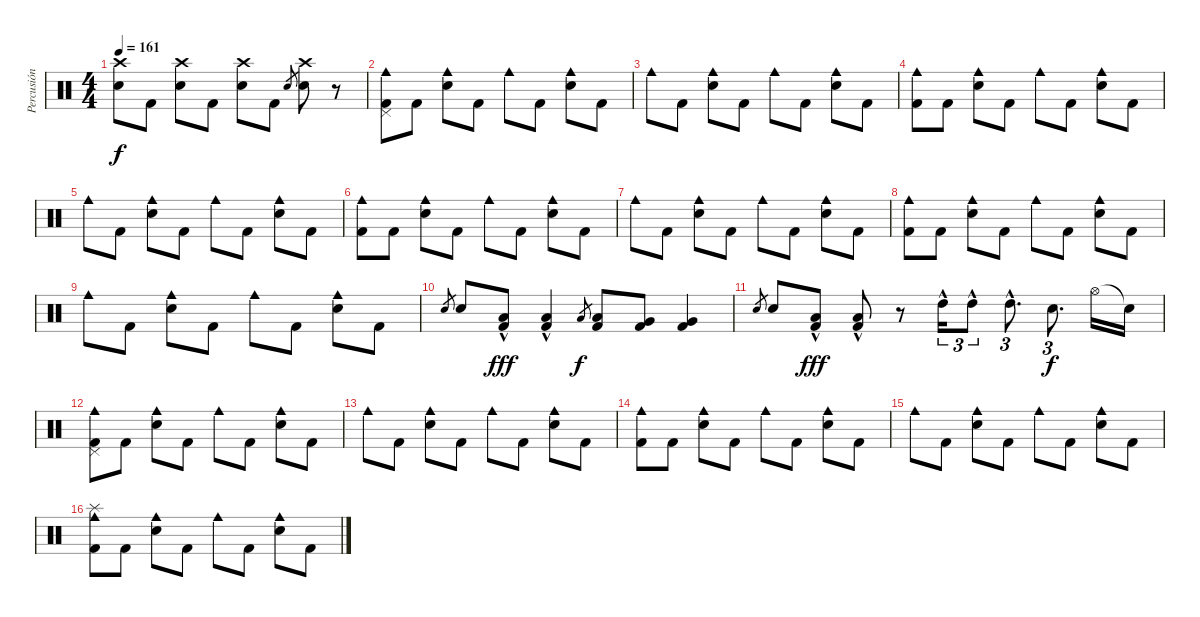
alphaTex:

\track ("Percusión" "Percusión") {instrument percussion}
\staff {score}
\articulation defaults
\ts (4 4)
\tempo 161
\clef neutral
\ks c
("Crash high (hit)" "Snare (hit) 2").8{dy f} "Kick (hit) 2".8 ("Crash high (hit)" "Snare (hit) 2").8 "Kick (hit) 2".8 ("Crash high (hit)" "Snare (hit) 2").8 "Kick (hit) 2".8 "Snare (hit) 2".8{gr} ("Crash high (hit)" "Snare (hit) 2").8 r.8 |
("Pedal Hi-Hat (hit)" "Cowbell medium (hit)" "Kick (hit) 2").8 "Kick (hit) 2".8 ("Cowbell medium (hit)" "Snare (hit) 2").8 "Kick (hit) 2".8 "Cowbell medium (hit)".8 "Kick (hit) 2".8 ("Cowbell medium (hit)" "Snare (hit) 2").8 "Kick (hit) 2".8 |
"Cowbell medium (hit)".8 "Kick (hit) 2".8 ("Cowbell medium (hit)" "Snare (hit) 2").8 "Kick (hit) 2".8 "Cowbell medium (hit)".8 "Kick (hit) 2".8 ("Cowbell medium (hit)" "Snare (hit) 2").8 "Kick (hit) 2".8 |
("Cowbell medium (hit)" "Kick (hit) 2").8 "Kick (hit) 2".8 ("Cowbell medium (hit)" "Snare (hit) 2").8 "Kick (hit) 2".8 "Cowbell medium (hit)".8 "Kick (hit) 2".8 ("Cowbell medium (hit)" "Snare (hit) 2").8 "Kick (hit) 2".8 |
"Cowbell medium (hit)".8 "Kick (hit) 2".8 ("Cowbell medium (hit)" "Snare (hit) 2").8 "Kick (hit) 2".8 "Cowbell medium (hit)".8 "Kick (hit) 2".8 ("Cowbell medium (hit)" "Snare (hit) 2").8 "Kick (hit) 2".8 |
("Cowbell medium (hit)" "Kick (hit) 2").8 "Kick (hit) 2".8 ("Cowbell medium (hit)" "Snare (hit) 2").8 "Kick (hit) 2".8 "Cowbell medium (hit)".8 "Kick (hit) 2".8 ("Cowbell medium (hit)" "Snare (hit) 2").8 "Kick (hit) 2".8 |
"Cowbell medium (hit)".8 "Kick (hit) 2".8 ("Cowbell medium (hit)" "Snare (hit) 2").8 "Kick (hit) 2".8 "Cowbell medium (hit)".8 "Kick (hit) 2".8 ("Cowbell medium (hit)" "Snare (hit) 2").8 "Kick (hit) 2".8 |
("Cowbell medium (hit)" "Kick (hit) 2").8 "Kick (hit) 2".8 ("Cowbell medium (hit)" "Snare (hit) 2").8 "Kick (hit) 2".8 "Cowbell medium (hit)".8 "Kick (hit) 2".8 ("Cowbell medium (hit)" "Snare (hit) 2").8 "Kick (hit) 2".8 |
"Cowbell medium (hit)".8 "Kick (hit) 2".8 ("Cowbell medium (hit)" "Snare (hit) 2").8 "Kick (hit) 2".8 "Cowbell medium (hit)".8 "Kick (hit) 2".8 ("Cowbell medium (hit)" "Snare (hit) 2").8 "Kick (hit) 2".8 |
"Snare (hit) 2".8{gr} "Snare (hit) 2".8 ("Low Tom (hit)"{hac} "Kick (hit) 2").8{dy fff} ("Low Tom (hit)"{hac} "Kick (hit) 2").4 "Low Tom (hit)".8{gr dy f} ("Low Tom (hit)" "Kick (hit) 2").8 ("Very Low Tom (hit)" "Kick (hit) 2").8 ("Very Low Tom (hit)" "Kick (hit) 2").4 |
"Snare (hit) 2".8{gr} "Snare (hit) 2".8 ("Low Tom (hit)"{hac} "Kick (hit) 2").8{dy fff} ("Low Tom (hit)"{hac} "Kick (hit) 2").8 r.8 "High Tom (hit)"{hac}.16{tu (3 2)} "High Tom (hit)"{hac}.8{tu (3 2)} "High Tom (hit)"{hac}.8{d tu (3 2)} "Snare (hit) 2".8{d tu (3 2) dy f} "Hi-Hat (open)".16 "Snare (hit)"{t}.16 |
("Pedal Hi-Hat (hit)" "Cowbell medium (hit)" "Kick (hit) 2").8 "Kick (hit) 2".8 ("Cowbell medium (hit)" "Snare (hit) 2").8 "Kick (hit) 2".8 "Cowbell medium (hit)".8 "Kick (hit) 2".8 ("Cowbell medium (hit)" "Snare (hit) 2").8 "Kick (hit) 2".8 |
"Cowbell medium (hit)".8 "Kick (hit) 2".8 ("Cowbell medium (hit)" "Snare (hit) 2").8 "Kick (hit) 2".8 "Cowbell medium (hit)".8 "Kick (hit) 2".8 ("Cowbell medium (hit)" "Snare (hit) 2").8 "Kick (hit) 2".8 |
("Cowbell medium (hit)" "Kick (hit) 2").8 "Kick (hit) 2".8 ("Cowbell medium (hit)" "Snare (hit) 2").8 "Kick (hit) 2".8 "Cowbell medium (hit)".8 "Kick (hit) 2".8 ("Cowbell medium (hit)" "Snare (hit) 2").8 "Kick (hit) 2".8 |
"Cowbell medium (hit)".8 "Kick (hit) 2".8 ("Cowbell medium (hit)" "Snare (hit) 2").8 "Kick (hit) 2".8 "Cowbell medium (hit)".8 "Kick (hit) 2".8 ("Cowbell medium (hit)" "Snare (hit) 2").8 "Kick (hit) 2".8 |
("Cowbell medium (hit)" "Splash (hit)" "Kick (hit) 2").8 "Kick (hit) 2".8 ("Cowbell medium (hit)" "Snare (hit) 2").8 "Kick (hit) 2".8 "Cowbell medium (hit)".8 "Kick (hit) 2".8 ("Cowbell medium (hit)" "Snare (hit) 2").8 "Kick (hit) 2".8
